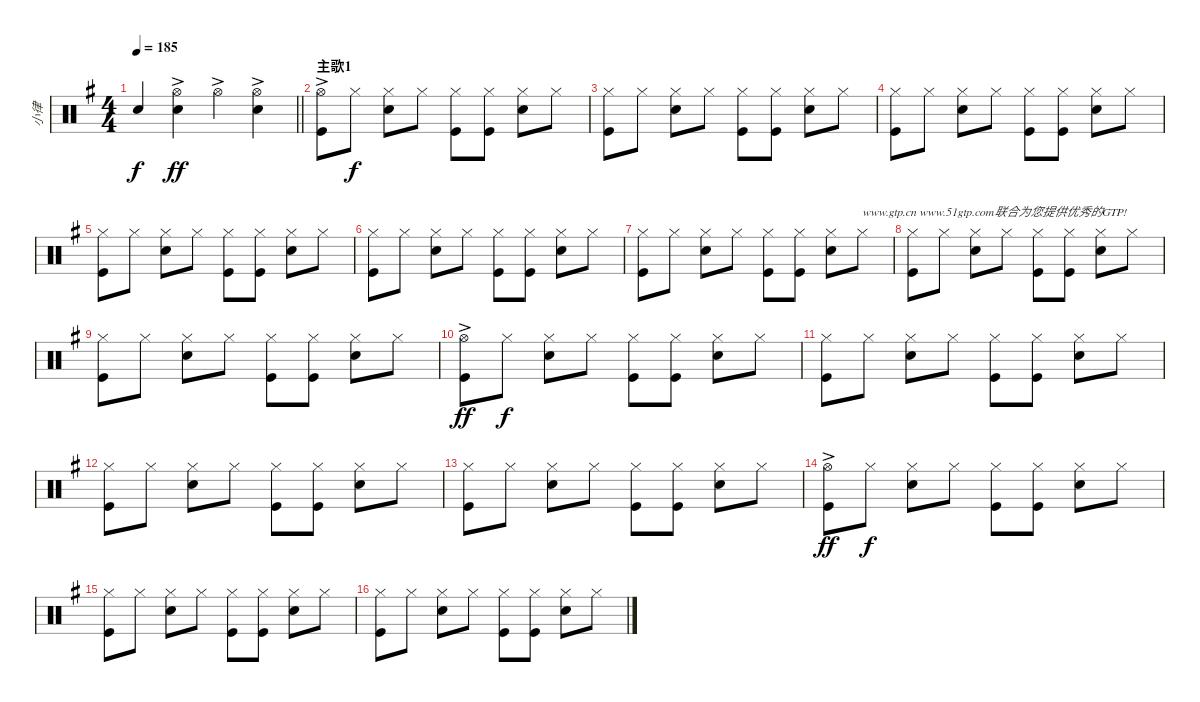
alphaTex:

\track ("小律" "小律") {instrument percussion}
\staff {score}
\articulation defaults
\ts (4 4)
\tempo 185
\clef neutral
\barLineRight lightlight
\ks g "Snare (hit) 2".4{dy f beam Up}
("Snare (hit) 2" "Hi-Hat (open)"{ac}).4{dy ff} "Hi-Hat (open)"{ac}.4 ("Hi-Hat (open)"{ac} "Snare (hit) 2").4 |
\section ("" "主歌1")
("Hi-Hat (open)" "Kick (hit)"{ac}).8 "Hi-Hat (closed)".8{dy f} ("Hi-Hat (closed)" "Snare (hit) 2").8 "Hi-Hat (closed)".8 ("Hi-Hat (closed)" "Kick (hit)").8 ("Hi-Hat (closed)" "Kick (hit)").8 ("Hi-Hat (closed)" "Snare (hit) 2").8 "Hi-Hat (closed)".8 |
("Hi-Hat (closed)" "Kick (hit)").8 "Hi-Hat (closed)".8 ("Hi-Hat (closed)" "Snare (hit) 2").8 "Hi-Hat (closed)".8 ("Hi-Hat (closed)" "Kick (hit)").8 ("Hi-Hat (closed)" "Kick (hit)").8 ("Hi-Hat (closed)" "Snare (hit) 2").8 "Hi-Hat (closed)".8 |
("Hi-Hat (closed)" "Kick (hit)").8 "Hi-Hat (closed)".8 ("Hi-Hat (closed)" "Snare (hit) 2").8 "Hi-Hat (closed)".8 ("Hi-Hat (closed)" "Kick (hit)").8 ("Hi-Hat (closed)" "Kick (hit)").8 ("Hi-Hat (closed)" "Snare (hit) 2").8 "Hi-Hat (closed)".8 |
("Hi-Hat (closed)" "Kick (hit)").8 "Hi-Hat (closed)".8 ("Hi-Hat (closed)" "Snare (hit) 2").8 "Hi-Hat (closed)".8 ("Hi-Hat (closed)" "Kick (hit)").8 ("Hi-Hat (closed)" "Kick (hit)").8 ("Hi-Hat (closed)" "Snare (hit) 2").8 "Hi-Hat (closed)".8 |
("Hi-Hat (closed)" "Kick (hit)").8 "Hi-Hat (closed)".8 ("Hi-Hat (closed)" "Snare (hit) 2").8 "Hi-Hat (closed)".8 ("Hi-Hat (closed)" "Kick (hit)").8 ("Hi-Hat (closed)" "Kick (hit)").8 ("Hi-Hat (closed)" "Snare (hit) 2").8 "Hi-Hat (closed)".8 |
("Hi-Hat (closed)" "Kick (hit)").8 "Hi-Hat (closed)".8 ("Hi-Hat (closed)" "Snare (hit) 2").8 "Hi-Hat (closed)".8 ("Hi-Hat (closed)" "Kick (hit)").8 ("Hi-Hat (closed)" "Kick (hit)").8 ("Hi-Hat (closed)" "Snare (hit) 2").8 "Hi-Hat (closed)".8{txt "www.gtp.cn www.51gtp.com联合为您提供优秀的GTP!"} |
("Hi-Hat (closed)" "Kick (hit)").8 "Hi-Hat (closed)".8 ("Hi-Hat (closed)" "Snare (hit) 2").8 "Hi-Hat (closed)".8 ("Hi-Hat (closed)" "Kick (hit)").8 ("Hi-Hat (closed)" "Kick (hit)").8 ("Hi-Hat (closed)" "Snare (hit) 2").8 "Hi-Hat (closed)".8 |
("Hi-Hat (closed)" "Kick (hit)").8 "Hi-Hat (closed)".8 ("Hi-Hat (closed)" "Snare (hit) 2").8 "Hi-Hat (closed)".8 ("Hi-Hat (closed)" "Kick (hit)").8 ("Hi-Hat (closed)" "Kick (hit)").8 ("Hi-Hat (closed)" "Snare (hit) 2").8 "Hi-Hat (closed)".8 |
("Hi-Hat (open)"{ac} "Kick (hit)").8{dy ff} "Hi-Hat (closed)".8{dy f} ("Hi-Hat (closed)" "Snare (hit) 2").8 "Hi-Hat (closed)".8 ("Hi-Hat (closed)" "Kick (hit)").8 ("Hi-Hat (closed)" "Kick (hit)").8 ("Hi-Hat (closed)" "Snare (hit) 2").8 "Hi-Hat (closed)".8 |
("Hi-Hat (closed)" "Kick (hit)").8 "Hi-Hat (closed)".8 ("Hi-Hat (closed)" "Snare (hit) 2").8 "Hi-Hat (closed)".8 ("Hi-Hat (closed)" "Kick (hit)").8 ("Hi-Hat (closed)" "Kick (hit)").8 ("Hi-Hat (closed)" "Snare (hit) 2").8 "Hi-Hat (closed)".8 |
("Hi-Hat (closed)" "Kick (hit)").8 "Hi-Hat (closed)".8 ("Hi-Hat (closed)" "Snare (hit) 2").8 "Hi-Hat (closed)".8 ("Hi-Hat (closed)" "Kick (hit)").8 ("Hi-Hat (closed)" "Kick (hit)").8 ("Hi-Hat (closed)" "Snare (hit) 2").8 "Hi-Hat (closed)".8 |
("Hi-Hat (closed)" "Kick (hit)").8 "Hi-Hat (closed)".8 ("Hi-Hat (closed)" "Snare (hit) 2").8 "Hi-Hat (closed)".8 ("Hi-Hat (closed)" "Kick (hit)").8 ("Hi-Hat (closed)" "Kick (hit)").8 ("Hi-Hat (closed)" "Snare (hit) 2").8 "Hi-Hat (closed)".8 |
("Hi-Hat (open)"{ac} "Kick (hit)").8{dy ff} "Hi-Hat (closed)".8{dy f} ("Hi-Hat (closed)" "Snare (hit) 2").8 "Hi-Hat (closed)".8 ("Hi-Hat (closed)" "Kick (hit)").8 ("Hi-Hat (closed)" "Kick (hit)").8 ("Hi-Hat (closed)" "Snare (hit) 2").8 "Hi-Hat (closed)".8 |
("Hi-Hat (closed)" "Kick (hit)").8 "Hi-Hat (closed)".8 ("Hi-Hat (closed)" "Snare (hit) 2").8 "Hi-Hat (closed)".8 ("Hi-Hat (closed)" "Kick (hit)").8 ("Hi-Hat (closed)" "Kick (hit)").8 ("Hi-Hat (closed)" "Snare (hit) 2").8 "Hi-Hat (closed)".8 |
("Hi-Hat (closed)" "Kick (hit)").8 "Hi-Hat (closed)".8 ("Hi-Hat (closed)" "Snare (hit) 2").8 "Hi-Hat (closed)".8 ("Hi-Hat (closed)" "Kick (hit)").8 ("Hi-Hat (closed)" "Kick (hit)").8 ("Hi-Hat (closed)" "Snare (hit) 2").8 "Hi-Hat (closed)".8
